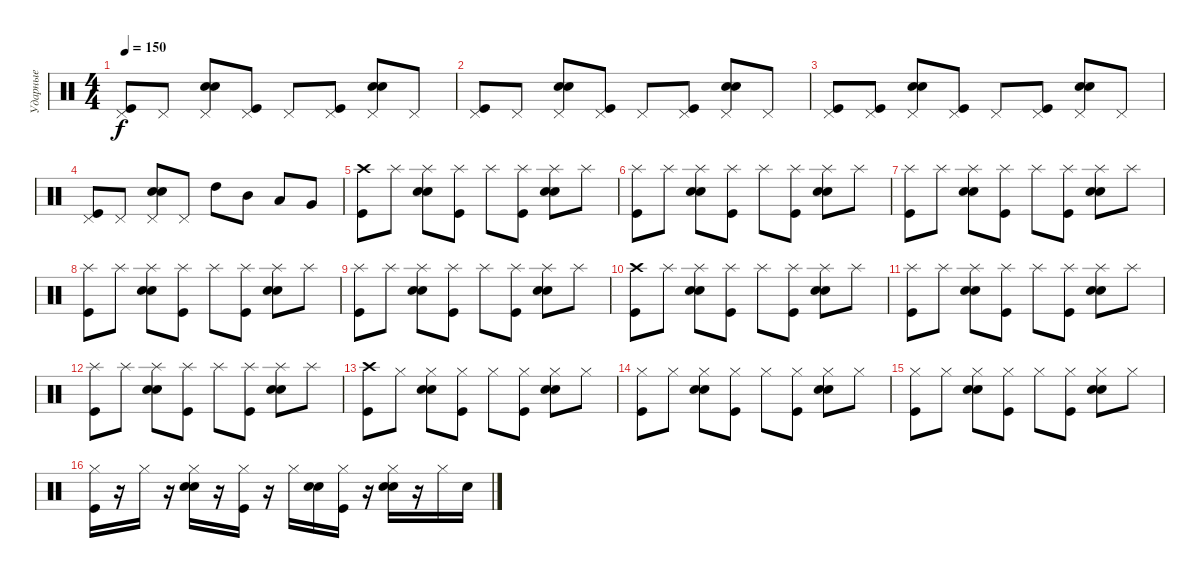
\track ("Ударные" "Ударные") {instrument percussion}
\staff {score}
\articulation defaults
\ts (4 4)
\tempo 150
\clef neutral
\ks c
("Pedal Hi-Hat (hit)" "Kick (hit)").8{dy f} "Pedal Hi-Hat (hit)".8 ("Pedal Hi-Hat (hit)" "Electric Snare (hit)" "Snare (hit) 2").8 ("Pedal Hi-Hat (hit)" "Kick (hit)").8 "Pedal Hi-Hat (hit)".8 ("Pedal Hi-Hat (hit)" "Kick (hit)").8 ("Pedal Hi-Hat (hit)" "Electric Snare (hit)" "Snare (hit) 2").8 "Pedal Hi-Hat (hit)".8 |
("Pedal Hi-Hat (hit)" "Kick (hit)").8 "Pedal Hi-Hat (hit)".8 ("Pedal Hi-Hat (hit)" "Electric Snare (hit)" "Snare (hit) 2").8 ("Pedal Hi-Hat (hit)" "Kick (hit)").8 "Pedal Hi-Hat (hit)".8 ("Pedal Hi-Hat (hit)" "Kick (hit)").8 ("Pedal Hi-Hat (hit)" "Electric Snare (hit)" "Snare (hit) 2").8 "Pedal Hi-Hat (hit)".8 |
("Pedal Hi-Hat (hit)" "Kick (hit)").8 ("Pedal Hi-Hat (hit)" "Kick (hit)").8 ("Pedal Hi-Hat (hit)" "Electric Snare (hit)" "Snare (hit) 2").8 ("Pedal Hi-Hat (hit)" "Kick (hit)").8 "Pedal Hi-Hat (hit)".8 ("Pedal Hi-Hat (hit)" "Kick (hit)").8 ("Pedal Hi-Hat (hit)" "Electric Snare (hit)" "Snare (hit) 2").8 "Pedal Hi-Hat (hit)".8 |
("Pedal Hi-Hat (hit)" "Kick (hit)").8 "Pedal Hi-Hat (hit)".8 ("Pedal Hi-Hat (hit)" "Electric Snare (hit)" "Snare (hit) 2").8 "Pedal Hi-Hat (hit)".8 "High Tom (hit)".8 "Mid Tom (hit)".8 "Low Tom (hit)".8 "Very Low Tom (hit)".8 |
("Crash high (hit)" "Kick (hit)").8 "Splash (hit)".8 ("Splash (hit)" "Electric Snare (hit)" "Snare (hit) 2").8 ("Splash (hit)" "Kick (hit)").8 "Splash (hit)".8 ("Splash (hit)" "Kick (hit)").8 ("Splash (hit)" "Electric Snare (hit)" "Snare (hit) 2").8 "Splash (hit)".8 |
("Splash (hit)" "Kick (hit)").8 "Splash (hit)".8 ("Splash (hit)" "Electric Snare (hit)" "Snare (hit) 2").8 ("Splash (hit)" "Kick (hit)").8 "Splash (hit)".8 ("Splash (hit)" "Kick (hit)").8 ("Splash (hit)" "Electric Snare (hit)" "Snare (hit) 2").8 "Splash (hit)".8 |
("Splash (hit)" "Kick (hit)").8 "Splash (hit)".8 ("Splash (hit)" "Electric Snare (hit)" "Snare (hit) 2").8 ("Splash (hit)" "Kick (hit)").8 "Splash (hit)".8 ("Splash (hit)" "Kick (hit)").8 ("Splash (hit)" "Electric Snare (hit)" "Snare (hit) 2").8 "Splash (hit)".8 |
("Splash (hit)" "Kick (hit)").8 "Splash (hit)".8 ("Splash (hit)" "Electric Snare (hit)" "Snare (hit) 2").8 ("Splash (hit)" "Kick (hit)").8 "Splash (hit)".8 ("Splash (hit)" "Kick (hit)").8 ("Splash (hit)" "Electric Snare (hit)" "Snare (hit) 2").8 "Splash (hit)".8 |
("Splash (hit)" "Kick (hit)").8 "Splash (hit)".8 ("Splash (hit)" "Electric Snare (hit)" "Snare (hit) 2").8 ("Splash (hit)" "Kick (hit)").8 "Splash (hit)".8 ("Splash (hit)" "Kick (hit)").8 ("Splash (hit)" "Electric Snare (hit)" "Snare (hit) 2").8 "Splash (hit)".8 |
("Crash high (hit)" "Kick (hit)").8 "Splash (hit)".8 ("Splash (hit)" "Electric Snare (hit)" "Snare (hit) 2").8 ("Splash (hit)" "Kick (hit)").8 "Splash (hit)".8 ("Splash (hit)" "Kick (hit)").8 ("Splash (hit)" "Electric Snare (hit)" "Snare (hit) 2").8 "Splash (hit)".8 |
("Splash (hit)" "Kick (hit)").8 "Splash (hit)".8 ("Splash (hit)" "Electric Snare (hit)" "Snare (hit) 2").8 ("Splash (hit)" "Kick (hit)").8 "Splash (hit)".8 ("Splash (hit)" "Kick (hit)").8 ("Splash (hit)" "Electric Snare (hit)" "Snare (hit) 2").8 "Splash (hit)".8 |
("Splash (hit)" "Kick (hit)").8 "Splash (hit)".8 ("Splash (hit)" "Electric Snare (hit)" "Snare (hit) 2").8 ("Splash (hit)" "Kick (hit)").8 "Splash (hit)".8 ("Splash (hit)" "Kick (hit)").8 ("Splash (hit)" "Electric Snare (hit)" "Snare (hit) 2").8 "Splash (hit)".8 |
("Crash high (hit)" "Kick (hit)").8 "Hi-Hat (closed)".8 ("Hi-Hat (closed)" "Electric Snare (hit)" "Snare (hit) 2").8 ("Hi-Hat (closed)" "Kick (hit)").8 "Hi-Hat (closed)".8 ("Hi-Hat (closed)" "Kick (hit)").8 ("Hi-Hat (closed)" "Electric Snare (hit)" "Snare (hit) 2").8 "Hi-Hat (closed)".8 |
("Hi-Hat (closed)" "Kick (hit)").8 "Hi-Hat (closed)".8 ("Hi-Hat (closed)" "Electric Snare (hit)" "Snare (hit) 2").8 ("Hi-Hat (closed)" "Kick (hit)").8 "Hi-Hat (closed)".8 ("Hi-Hat (closed)" "Kick (hit)").8 ("Hi-Hat (closed)" "Electric Snare (hit)" "Snare (hit) 2").8 "Hi-Hat (closed)".8 |
("Hi-Hat (closed)" "Kick (hit)").8 "Hi-Hat (closed)".8 ("Hi-Hat (closed)" "Electric Snare (hit)" "Snare (hit) 2").8 ("Hi-Hat (closed)" "Kick (hit)").8 "Hi-Hat (closed)".8 ("Hi-Hat (closed)" "Kick (hit)").8 ("Hi-Hat (closed)" "Electric Snare (hit)" "Snare (hit) 2").8 "Hi-Hat (closed)".8 |
("Hi-Hat (closed)" "Kick (hit)").16 r.16 "Hi-Hat (closed)".16 r.16 ("Hi-Hat (closed)" "Electric Snare (hit)" "Snare (hit) 2").16 r.16 ("Hi-Hat (closed)" "Kick (hit)").16 r.16 "Hi-Hat (closed)".16 ("Electric Snare (hit)" "Snare (hit) 2").16 ("Hi-Hat (closed)" "Kick (hit)").16 r.16 ("Hi-Hat (closed)" "Electric Snare (hit)" "Snare (hit) 2").16 r.16 "Hi-Hat (closed)".16 "Snare (hit)".16
